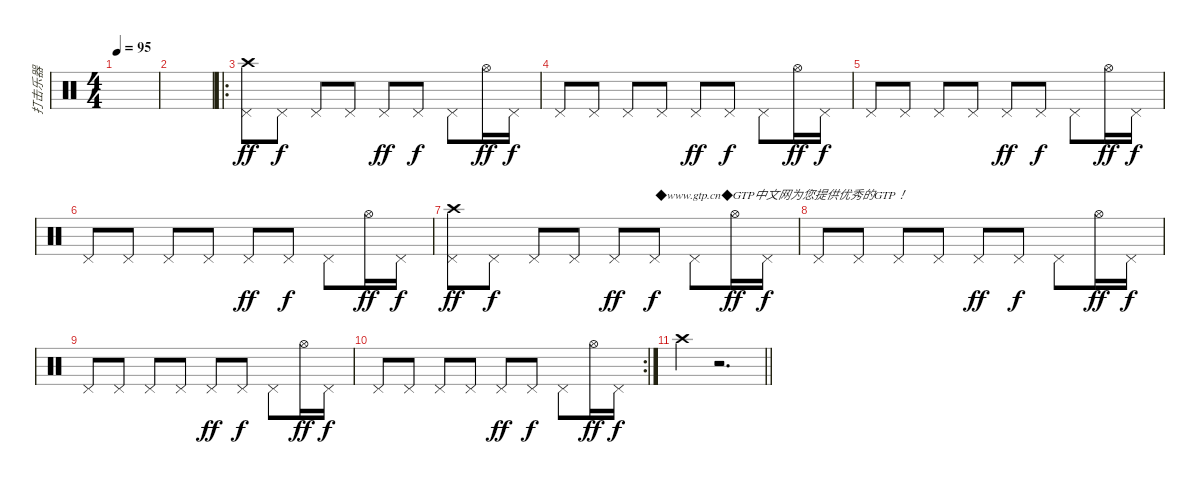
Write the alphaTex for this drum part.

\track ("打击乐器" "打击乐器") {instrument percussion}
\staff {score}
\articulation defaults
\ts (4 4)
\tempo 95
\clef neutral
\ks c
|
|
\ro
("Pedal Hi-Hat (hit)" "Crash high (hit)").8{dy ff} "Pedal Hi-Hat (hit)".8{dy f} "Pedal Hi-Hat (hit)".8 "Pedal Hi-Hat (hit)".8 "Pedal Hi-Hat (hit)".8{dy ff} "Pedal Hi-Hat (hit)".8{dy f} "Pedal Hi-Hat (hit)".8 "Hi-Hat (open)".16{dy ff} "Pedal Hi-Hat (hit)".16{dy f} |
"Pedal Hi-Hat (hit)".8 "Pedal Hi-Hat (hit)".8 "Pedal Hi-Hat (hit)".8 "Pedal Hi-Hat (hit)".8 "Pedal Hi-Hat (hit)".8{dy ff} "Pedal Hi-Hat (hit)".8{dy f} "Pedal Hi-Hat (hit)".8 "Hi-Hat (open)".16{dy ff} "Pedal Hi-Hat (hit)".16{dy f} |
"Pedal Hi-Hat (hit)".8 "Pedal Hi-Hat (hit)".8 "Pedal Hi-Hat (hit)".8 "Pedal Hi-Hat (hit)".8 "Pedal Hi-Hat (hit)".8{dy ff} "Pedal Hi-Hat (hit)".8{dy f} "Pedal Hi-Hat (hit)".8 "Hi-Hat (open)".16{dy ff} "Pedal Hi-Hat (hit)".16{dy f} |
"Pedal Hi-Hat (hit)".8 "Pedal Hi-Hat (hit)".8 "Pedal Hi-Hat (hit)".8 "Pedal Hi-Hat (hit)".8 "Pedal Hi-Hat (hit)".8{dy ff} "Pedal Hi-Hat (hit)".8{dy f} "Pedal Hi-Hat (hit)".8 "Hi-Hat (open)".16{dy ff} "Pedal Hi-Hat (hit)".16{dy f} |
("Pedal Hi-Hat (hit)" "Crash high (hit)").8{dy ff} "Pedal Hi-Hat (hit)".8{dy f} "Pedal Hi-Hat (hit)".8 "Pedal Hi-Hat (hit)".8 "Pedal Hi-Hat (hit)".8{dy ff} "Pedal Hi-Hat (hit)".8{txt "◆www.gtp.cn◆GTP中文网为您提供优秀的GTP！" dy f} "Pedal Hi-Hat (hit)".8 "Hi-Hat (open)".16{dy ff} "Pedal Hi-Hat (hit)".16{dy f} |
"Pedal Hi-Hat (hit)".8 "Pedal Hi-Hat (hit)".8 "Pedal Hi-Hat (hit)".8 "Pedal Hi-Hat (hit)".8 "Pedal Hi-Hat (hit)".8{dy ff} "Pedal Hi-Hat (hit)".8{dy f} "Pedal Hi-Hat (hit)".8 "Hi-Hat (open)".16{dy ff} "Pedal Hi-Hat (hit)".16{dy f} |
"Pedal Hi-Hat (hit)".8 "Pedal Hi-Hat (hit)".8 "Pedal Hi-Hat (hit)".8 "Pedal Hi-Hat (hit)".8 "Pedal Hi-Hat (hit)".8{dy ff} "Pedal Hi-Hat (hit)".8{dy f} "Pedal Hi-Hat (hit)".8 "Hi-Hat (open)".16{dy ff} "Pedal Hi-Hat (hit)".16{dy f} |
\rc 2 "Pedal Hi-Hat (hit)".8 "Pedal Hi-Hat (hit)".8 "Pedal Hi-Hat (hit)".8 "Pedal Hi-Hat (hit)".8 "Pedal Hi-Hat (hit)".8{dy ff} "Pedal Hi-Hat (hit)".8{dy f} "Pedal Hi-Hat (hit)".8 "Hi-Hat (open)".16{dy ff} "Pedal Hi-Hat (hit)".16{dy f}
|
\barLineRight lightlight "Crash high (hit)".4
r.2{d}
